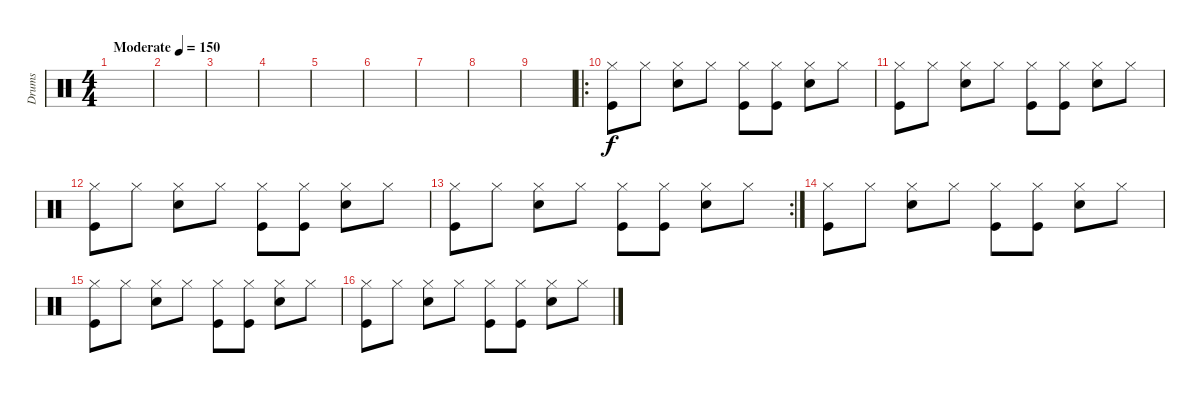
\track ("Drums" "Drums") {instrument percussion}
\staff {score}
\articulation defaults
\ts (4 4)
\tempo (150 "Moderate")
\clef neutral
\ks c
|
|
|
|
|
|
|
|
|
\ro
("Hi-Hat (closed)" "Kick (hit)").8 "Hi-Hat (closed)".8 ("Hi-Hat (closed)" "Snare (hit) 2").8 "Hi-Hat (closed)".8 ("Hi-Hat (closed)" "Kick (hit)").8 ("Hi-Hat (closed)" "Kick (hit)").8 ("Hi-Hat (closed)" "Snare (hit) 2").8 "Hi-Hat (closed)".8 |
("Hi-Hat (closed)" "Kick (hit)").8 "Hi-Hat (closed)".8 ("Hi-Hat (closed)" "Snare (hit) 2").8 "Hi-Hat (closed)".8 ("Hi-Hat (closed)" "Kick (hit)").8 ("Hi-Hat (closed)" "Kick (hit)").8 ("Hi-Hat (closed)" "Snare (hit) 2").8 "Hi-Hat (closed)".8 |
("Hi-Hat (closed)" "Kick (hit)").8 "Hi-Hat (closed)".8 ("Hi-Hat (closed)" "Snare (hit) 2").8 "Hi-Hat (closed)".8 ("Hi-Hat (closed)" "Kick (hit)").8 ("Hi-Hat (closed)" "Kick (hit)").8 ("Hi-Hat (closed)" "Snare (hit) 2").8 "Hi-Hat (closed)".8 |
\rc 2
("Hi-Hat (closed)" "Kick (hit)").8 "Hi-Hat (closed)".8 ("Hi-Hat (closed)" "Snare (hit) 2").8 "Hi-Hat (closed)".8 ("Hi-Hat (closed)" "Kick (hit)").8 ("Hi-Hat (closed)" "Kick (hit)").8 ("Hi-Hat (closed)" "Snare (hit) 2").8 "Hi-Hat (closed)".8 |
("Hi-Hat (closed)" "Kick (hit)").8 "Hi-Hat (closed)".8 ("Hi-Hat (closed)" "Snare (hit) 2").8 "Hi-Hat (closed)".8 ("Hi-Hat (closed)" "Kick (hit)").8 ("Hi-Hat (closed)" "Kick (hit)").8 ("Hi-Hat (closed)" "Snare (hit) 2").8 "Hi-Hat (closed)".8 |
("Hi-Hat (closed)" "Kick (hit)").8 "Hi-Hat (closed)".8 ("Hi-Hat (closed)" "Snare (hit) 2").8 "Hi-Hat (closed)".8 ("Hi-Hat (closed)" "Kick (hit)").8 ("Hi-Hat (closed)" "Kick (hit)").8 ("Hi-Hat (closed)" "Snare (hit) 2").8 "Hi-Hat (closed)".8 |
("Hi-Hat (closed)" "Kick (hit)").8 "Hi-Hat (closed)".8 ("Hi-Hat (closed)" "Snare (hit) 2").8 "Hi-Hat (closed)".8 ("Hi-Hat (closed)" "Kick (hit)").8 ("Hi-Hat (closed)" "Kick (hit)").8 ("Hi-Hat (closed)" "Snare (hit) 2").8 "Hi-Hat (closed)".8
